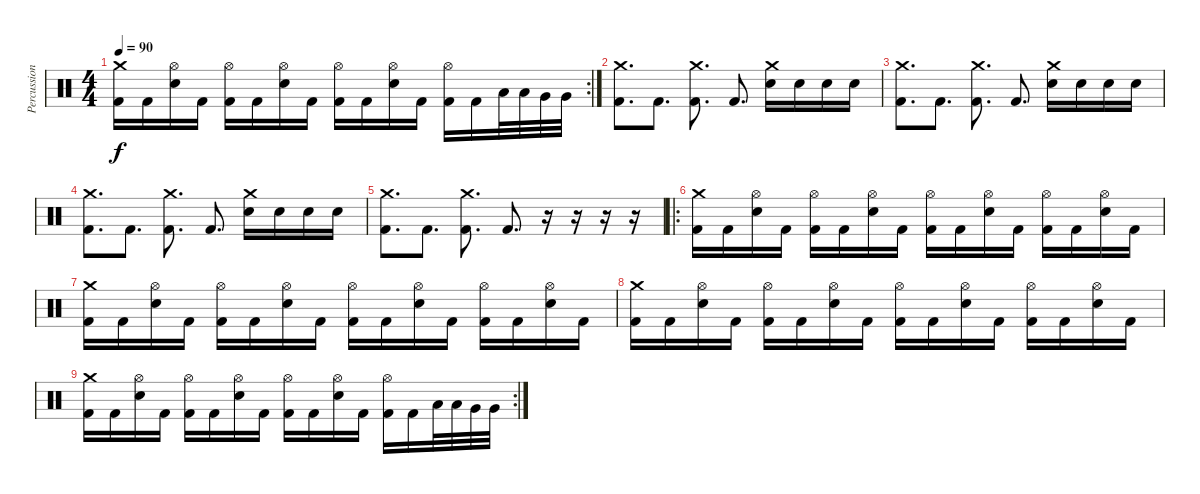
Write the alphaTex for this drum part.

\track ("Percussion" "Percussion") {instrument percussion}
\staff {score}
\articulation defaults
\rc 2
\ts (4 4)
\tempo 90
\clef neutral
\ks c
("Crash medium (hit)" "Kick (hit) 2").16{dy f} "Kick (hit) 2".16 ("Hi-Hat (open)" "Electric Snare (hit)").16 "Kick (hit) 2".16 ("Hi-Hat (open)" "Kick (hit) 2").16 "Kick (hit) 2".16 ("Hi-Hat (open)" "Electric Snare (hit)").16 "Kick (hit) 2".16 ("Hi-Hat (open)" "Kick (hit) 2").16 "Kick (hit) 2".16 ("Hi-Hat (open)" "Electric Snare (hit)").16 "Kick (hit) 2".16 ("Hi-Hat (open)" "Kick (hit) 2").16 "Kick (hit) 2".16 "Low Tom (hit)".32 "Low Tom (hit)".32 "Very Low Tom (hit)".32 "Very Low Tom (hit)".32 |
("Crash medium (hit)" "Kick (hit) 2").8{d} "Kick (hit) 2".8{d} ("Crash medium (hit)" "Kick (hit) 2").8{d} "Kick (hit) 2".8{d} ("Crash medium (hit)" "Electric Snare (hit)").16 "Electric Snare (hit)".16 "Electric Snare (hit)".16 "Electric Snare (hit)".16 |
("Crash medium (hit)" "Kick (hit) 2").8{d} "Kick (hit) 2".8{d} ("Crash medium (hit)" "Kick (hit) 2").8{d} "Kick (hit) 2".8{d} ("Crash medium (hit)" "Electric Snare (hit)").16 "Electric Snare (hit)".16 "Electric Snare (hit)".16 "Electric Snare (hit)".16 |
("Crash medium (hit)" "Kick (hit) 2").8{d} "Kick (hit) 2".8{d} ("Crash medium (hit)" "Kick (hit) 2").8{d} "Kick (hit) 2".8{d} ("Crash medium (hit)" "Electric Snare (hit)").16 "Electric Snare (hit)".16 "Electric Snare (hit)".16 "Electric Snare (hit)".16 |
("Crash medium (hit)" "Kick (hit) 2").8{d} "Kick (hit) 2".8{d} ("Crash medium (hit)" "Kick (hit) 2").8{d} "Kick (hit) 2".8{d} r.16 r.16 r.16 r.16 |
\ro
("Crash medium (hit)" "Kick (hit) 2").16 "Kick (hit) 2".16 ("Hi-Hat (open)" "Electric Snare (hit)").16 "Kick (hit) 2".16 ("Hi-Hat (open)" "Kick (hit) 2").16 "Kick (hit) 2".16 ("Hi-Hat (open)" "Electric Snare (hit)").16 "Kick (hit) 2".16 ("Hi-Hat (open)" "Kick (hit) 2").16 "Kick (hit) 2".16 ("Hi-Hat (open)" "Electric Snare (hit)").16 "Kick (hit) 2".16 ("Hi-Hat (open)" "Kick (hit) 2").16 "Kick (hit) 2".16 ("Hi-Hat (open)" "Electric Snare (hit)").16 "Kick (hit) 2".16 |
("Crash medium (hit)" "Kick (hit) 2").16 "Kick (hit) 2".16 ("Hi-Hat (open)" "Electric Snare (hit)").16 "Kick (hit) 2".16 ("Hi-Hat (open)" "Kick (hit) 2").16 "Kick (hit) 2".16 ("Hi-Hat (open)" "Electric Snare (hit)").16 "Kick (hit) 2".16 ("Hi-Hat (open)" "Kick (hit) 2").16 "Kick (hit) 2".16 ("Hi-Hat (open)" "Electric Snare (hit)").16 "Kick (hit) 2".16 ("Hi-Hat (open)" "Kick (hit) 2").16 "Kick (hit) 2".16 ("Hi-Hat (open)" "Electric Snare (hit)").16 "Kick (hit) 2".16 |
("Crash medium (hit)" "Kick (hit) 2").16 "Kick (hit) 2".16 ("Hi-Hat (open)" "Electric Snare (hit)").16 "Kick (hit) 2".16 ("Hi-Hat (open)" "Kick (hit) 2").16 "Kick (hit) 2".16 ("Hi-Hat (open)" "Electric Snare (hit)").16 "Kick (hit) 2".16 ("Hi-Hat (open)" "Kick (hit) 2").16 "Kick (hit) 2".16 ("Hi-Hat (open)" "Electric Snare (hit)").16 "Kick (hit) 2".16 ("Hi-Hat (open)" "Kick (hit) 2").16 "Kick (hit) 2".16 ("Hi-Hat (open)" "Electric Snare (hit)").16 "Kick (hit) 2".16 |
\rc 2
("Crash medium (hit)" "Kick (hit) 2").16 "Kick (hit) 2".16 ("Hi-Hat (open)" "Electric Snare (hit)").16 "Kick (hit) 2".16 ("Hi-Hat (open)" "Kick (hit) 2").16 "Kick (hit) 2".16 ("Hi-Hat (open)" "Electric Snare (hit)").16 "Kick (hit) 2".16 ("Hi-Hat (open)" "Kick (hit) 2").16 "Kick (hit) 2".16 ("Hi-Hat (open)" "Electric Snare (hit)").16 "Kick (hit) 2".16 ("Hi-Hat (open)" "Kick (hit) 2").16 "Kick (hit) 2".16 "Low Tom (hit)".32 "Low Tom (hit)".32 "Very Low Tom (hit)".32 "Very Low Tom (hit)".32
